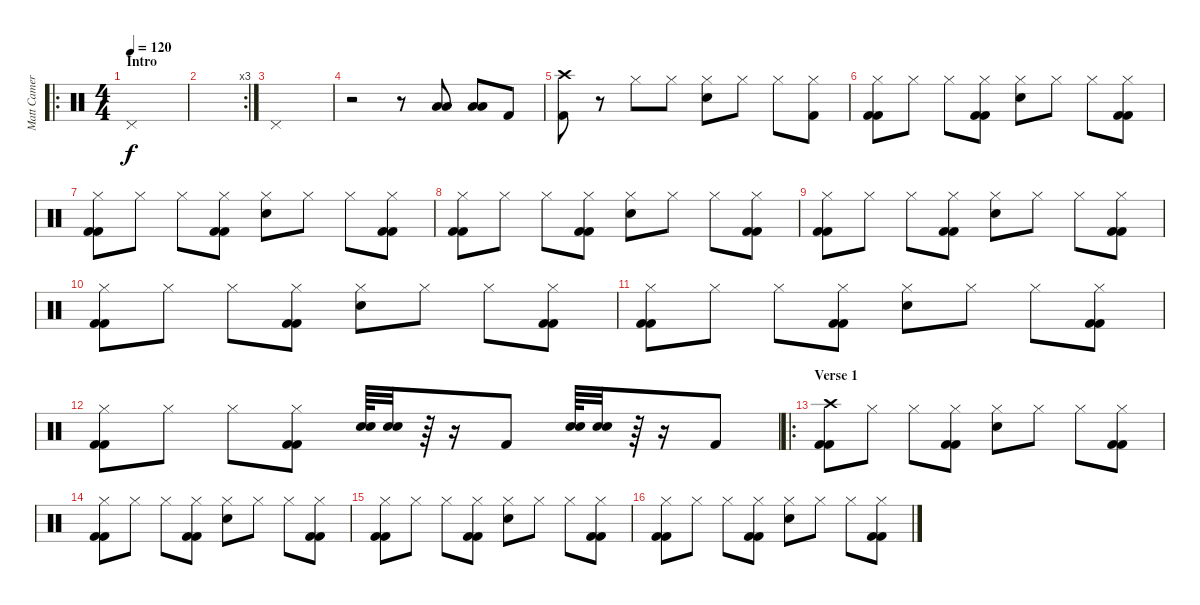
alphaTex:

\track ("Matt Cameron" "Matt Camer") {instrument percussion}
\staff {score}
\articulation defaults
\ro
\ts (4 4)
\section ("" "Intro")
\tempo 120
\clef neutral
\ks c "Pedal Hi-Hat (hit)".1{dy f}
|
\rc 3
|
"Pedal Hi-Hat (hit)".1 |
r.2 r.8 ("Low Tom (hit)" "Low Tom (hit)").8 ("Low Tom (hit)" "Low Tom (hit)").8 "Kick (hit) 2".8 |
("Crash high (hit)" "Kick (hit) 2").8 r.8 "Hi-Hat (closed)".8 "Hi-Hat (closed)".8 ("Hi-Hat (closed)" "Electric Snare (hit)").8 "Hi-Hat (closed)".8 "Hi-Hat (closed)".8 ("Hi-Hat (closed)" "Kick (hit) 2").8 |
("Hi-Hat (closed)" "Kick (hit) 2" "Kick (hit) 2").8 "Hi-Hat (closed)".8 "Hi-Hat (closed)".8 ("Hi-Hat (closed)" "Kick (hit) 2" "Kick (hit) 2").8 ("Hi-Hat (closed)" "Electric Snare (hit)").8 "Hi-Hat (closed)".8 "Hi-Hat (closed)".8 ("Hi-Hat (closed)" "Kick (hit) 2" "Kick (hit) 2").8 |
("Hi-Hat (closed)" "Kick (hit) 2" "Kick (hit) 2").8 "Hi-Hat (closed)".8 "Hi-Hat (closed)".8 ("Hi-Hat (closed)" "Kick (hit) 2" "Kick (hit) 2").8 ("Hi-Hat (closed)" "Electric Snare (hit)").8 "Hi-Hat (closed)".8 "Hi-Hat (closed)".8 ("Hi-Hat (closed)" "Kick (hit) 2" "Kick (hit) 2").8 |
("Hi-Hat (closed)" "Kick (hit) 2" "Kick (hit) 2").8 "Hi-Hat (closed)".8 "Hi-Hat (closed)".8 ("Hi-Hat (closed)" "Kick (hit) 2" "Kick (hit) 2").8 ("Hi-Hat (closed)" "Electric Snare (hit)").8 "Hi-Hat (closed)".8 "Hi-Hat (closed)".8 ("Hi-Hat (closed)" "Kick (hit) 2" "Kick (hit) 2").8 |
("Hi-Hat (closed)" "Kick (hit) 2" "Kick (hit) 2").8 "Hi-Hat (closed)".8 "Hi-Hat (closed)".8 ("Hi-Hat (closed)" "Kick (hit) 2" "Kick (hit) 2").8 ("Hi-Hat (closed)" "Electric Snare (hit)").8 "Hi-Hat (closed)".8 "Hi-Hat (closed)".8 ("Hi-Hat (closed)" "Kick (hit) 2" "Kick (hit) 2").8 |
("Hi-Hat (closed)" "Kick (hit) 2" "Kick (hit) 2").8 "Hi-Hat (closed)".8 "Hi-Hat (closed)".8 ("Hi-Hat (closed)" "Kick (hit) 2" "Kick (hit) 2").8 ("Hi-Hat (closed)" "Electric Snare (hit)").8 "Hi-Hat (closed)".8 "Hi-Hat (closed)".8 ("Hi-Hat (closed)" "Kick (hit) 2" "Kick (hit) 2").8 |
("Hi-Hat (closed)" "Kick (hit) 2" "Kick (hit) 2").8 "Hi-Hat (closed)".8 "Hi-Hat (closed)".8 ("Hi-Hat (closed)" "Kick (hit) 2" "Kick (hit) 2").8 ("Hi-Hat (closed)" "Electric Snare (hit)").8 "Hi-Hat (closed)".8 "Hi-Hat (closed)".8 ("Hi-Hat (closed)" "Kick (hit) 2" "Kick (hit) 2").8 |
("Hi-Hat (closed)" "Kick (hit) 2" "Kick (hit) 2").8 "Hi-Hat (closed)".8 "Hi-Hat (closed)".8 ("Hi-Hat (closed)" "Kick (hit) 2" "Kick (hit) 2").8 ("Electric Snare (hit)" "Electric Snare (hit)").64 ("Electric Snare (hit)" "Electric Snare (hit)").32 r.64 r.16 "Kick (hit) 2".8 ("Electric Snare (hit)" "Electric Snare (hit)").64 ("Electric Snare (hit)" "Electric Snare (hit)").32 r.64 r.16 "Kick (hit) 2".8 |
\ro
\section ("" "Verse 1")
("Crash high (hit)" "Kick (hit) 2" "Kick (hit) 2").8 "Hi-Hat (closed)".8 "Hi-Hat (closed)".8 ("Hi-Hat (closed)" "Kick (hit) 2" "Kick (hit) 2").8 ("Hi-Hat (closed)" "Electric Snare (hit)").8 "Hi-Hat (closed)".8 "Hi-Hat (closed)".8 ("Hi-Hat (closed)" "Kick (hit) 2" "Kick (hit) 2").8 |
("Hi-Hat (closed)" "Kick (hit) 2" "Kick (hit) 2").8 "Hi-Hat (closed)".8 "Hi-Hat (closed)".8 ("Hi-Hat (closed)" "Kick (hit) 2" "Kick (hit) 2").8 ("Hi-Hat (closed)" "Electric Snare (hit)").8 "Hi-Hat (closed)".8 "Hi-Hat (closed)".8 ("Hi-Hat (closed)" "Kick (hit) 2" "Kick (hit) 2").8 |
("Hi-Hat (closed)" "Kick (hit) 2" "Kick (hit) 2").8 "Hi-Hat (closed)".8 "Hi-Hat (closed)".8 ("Hi-Hat (closed)" "Kick (hit) 2" "Kick (hit) 2").8 ("Hi-Hat (closed)" "Electric Snare (hit)").8 "Hi-Hat (closed)".8 "Hi-Hat (closed)".8 ("Hi-Hat (closed)" "Kick (hit) 2" "Kick (hit) 2").8 |
("Hi-Hat (closed)" "Kick (hit) 2" "Kick (hit) 2").8 "Hi-Hat (closed)".8 "Hi-Hat (closed)".8 ("Hi-Hat (closed)" "Kick (hit) 2" "Kick (hit) 2").8 ("Hi-Hat (closed)" "Electric Snare (hit)").8 "Hi-Hat (closed)".8 "Hi-Hat (closed)".8 ("Hi-Hat (closed)" "Kick (hit) 2" "Kick (hit) 2").8
